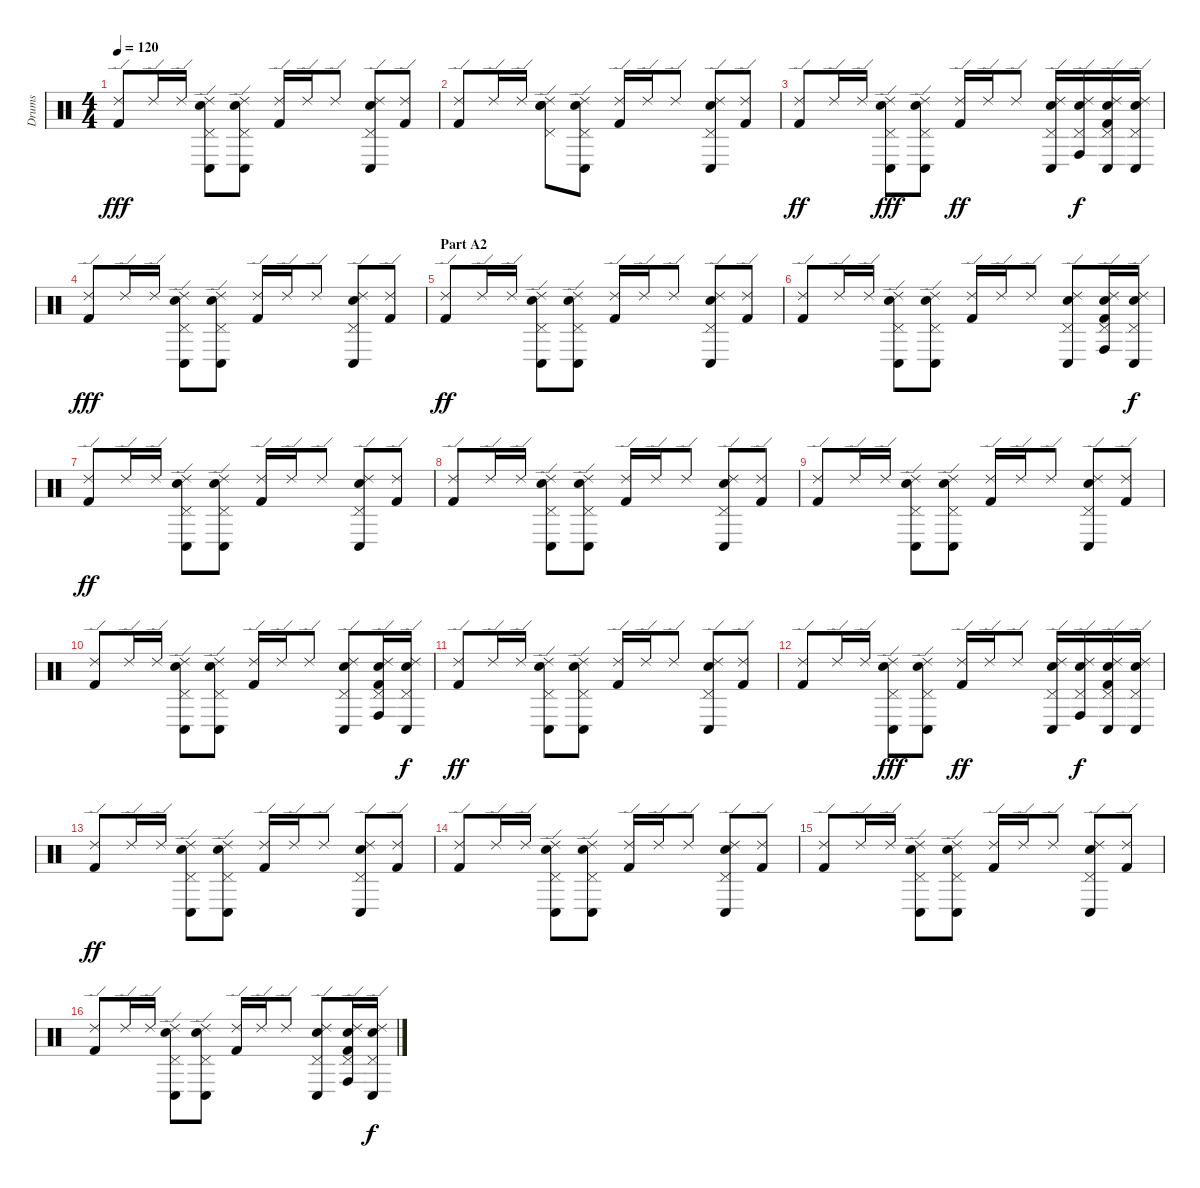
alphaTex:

\track ("Drums" "Drums") {instrument percussion}
\staff {score}
\articulation defaults
\ts (4 4)
\tempo 120
\clef neutral
\ks c
("Ride (edge) 2" "Kick (hit) 2").8{dy fff} "Ride (edge) 2".16 "Ride (edge) 2".16 ("Ride (edge) 2" "Pedal Hi-Hat (hit)" "Conga low (hit)" "Electric Snare (hit)").8 ("Ride (edge) 2" "Pedal Hi-Hat (hit)" "Conga low (hit)" "Electric Snare (hit)").8 ("Ride (edge) 2" "Kick (hit) 2").16 "Ride (edge) 2".16 "Ride (edge) 2".8 ("Ride (edge) 2" "Pedal Hi-Hat (hit)" "Conga low (hit)" "Electric Snare (hit)").8 ("Ride (edge) 2" "Kick (hit) 2").8 |
("Ride (edge) 2" "Kick (hit) 2").8 "Ride (edge) 2".16 "Ride (edge) 2".16 ("Ride (edge) 2" "Pedal Hi-Hat (hit)" "Snare (hit)" "Electric Snare (hit)").8 ("Ride (edge) 2" "Pedal Hi-Hat (hit)" "Conga low (hit)" "Electric Snare (hit)").8 ("Ride (edge) 2" "Kick (hit) 2").16 "Ride (edge) 2".16 "Ride (edge) 2".8 ("Ride (edge) 2" "Pedal Hi-Hat (hit)" "Conga low (hit)" "Electric Snare (hit)").8 ("Ride (edge) 2" "Kick (hit) 2").8 |
("Ride (edge) 2" "Kick (hit) 2").8{dy ff} "Ride (edge) 2".16 "Ride (edge) 2".16 ("Ride (edge) 2" "Pedal Hi-Hat (hit)" "Conga low (hit)" "Electric Snare (hit)").8{dy fff} ("Ride (edge) 2" "Pedal Hi-Hat (hit)" "Conga low (hit)" "Electric Snare (hit)").8 ("Ride (edge) 2" "Kick (hit) 2").16{dy ff} "Ride (edge) 2".16 "Ride (edge) 2".8 ("Ride (edge) 2" "Pedal Hi-Hat (hit)" "Conga low (hit)" "Electric Snare (hit)").16 ("Ride (edge) 2" "Pedal Hi-Hat (hit)" "Conga high (hit)" "Electric Snare (hit)").16{dy f} ("Ride (edge) 2" "Pedal Hi-Hat (hit)" "Conga low (hit)" "Electric Snare (hit)" "Kick (hit) 2").16 ("Ride (edge) 2" "Pedal Hi-Hat (hit)" "Conga low (hit)" "Electric Snare (hit)").16 |
("Ride (edge) 2" "Kick (hit) 2").8{dy fff} "Ride (edge) 2".16 "Ride (edge) 2".16 ("Ride (edge) 2" "Pedal Hi-Hat (hit)" "Conga low (hit)" "Electric Snare (hit)").8 ("Ride (edge) 2" "Pedal Hi-Hat (hit)" "Conga low (hit)" "Electric Snare (hit)").8 ("Ride (edge) 2" "Kick (hit) 2").16 "Ride (edge) 2".16 "Ride (edge) 2".8 ("Ride (edge) 2" "Pedal Hi-Hat (hit)" "Conga low (hit)" "Electric Snare (hit)").8 ("Ride (edge) 2" "Kick (hit) 2").8 |
\section ("" "Part A2")
("Ride (edge) 2" "Kick (hit) 2").8{dy ff} "Ride (edge) 2".16 "Ride (edge) 2".16 ("Ride (edge) 2" "Pedal Hi-Hat (hit)" "Conga low (hit)" "Electric Snare (hit)").8 ("Ride (edge) 2" "Pedal Hi-Hat (hit)" "Conga low (hit)" "Electric Snare (hit)").8 ("Ride (edge) 2" "Kick (hit) 2").16 "Ride (edge) 2".16 "Ride (edge) 2".8 ("Ride (edge) 2" "Pedal Hi-Hat (hit)" "Conga low (hit)" "Electric Snare (hit)").8 ("Ride (edge) 2" "Kick (hit) 2").8 |
("Ride (edge) 2" "Kick (hit) 2").8 "Ride (edge) 2".16 "Ride (edge) 2".16 ("Ride (edge) 2" "Pedal Hi-Hat (hit)" "Conga low (hit)" "Electric Snare (hit)").8 ("Ride (edge) 2" "Pedal Hi-Hat (hit)" "Conga low (hit)" "Electric Snare (hit)").8 ("Ride (edge) 2" "Kick (hit) 2").16 "Ride (edge) 2".16 "Ride (edge) 2".8 ("Ride (edge) 2" "Pedal Hi-Hat (hit)" "Conga low (hit)" "Electric Snare (hit)").8 ("Ride (edge) 2" "Pedal Hi-Hat (hit)" "Conga high (hit)" "Electric Snare (hit)" "Kick (hit) 2").16 ("Ride (edge) 2" "Pedal Hi-Hat (hit)" "Conga low (hit)" "Electric Snare (hit)").16{dy f} |
("Ride (edge) 2" "Kick (hit) 2").8{dy ff} "Ride (edge) 2".16 "Ride (edge) 2".16 ("Ride (edge) 2" "Pedal Hi-Hat (hit)" "Conga low (hit)" "Electric Snare (hit)").8 ("Ride (edge) 2" "Pedal Hi-Hat (hit)" "Conga low (hit)" "Electric Snare (hit)").8 ("Ride (edge) 2" "Kick (hit) 2").16 "Ride (edge) 2".16 "Ride (edge) 2".8 ("Ride (edge) 2" "Pedal Hi-Hat (hit)" "Conga low (hit)" "Electric Snare (hit)").8 ("Ride (edge) 2" "Kick (hit) 2").8 |
("Ride (edge) 2" "Kick (hit) 2").8 "Ride (edge) 2".16 "Ride (edge) 2".16 ("Ride (edge) 2" "Pedal Hi-Hat (hit)" "Conga low (hit)" "Electric Snare (hit)").8 ("Ride (edge) 2" "Pedal Hi-Hat (hit)" "Conga low (hit)" "Electric Snare (hit)").8 ("Ride (edge) 2" "Kick (hit) 2").16 "Ride (edge) 2".16 "Ride (edge) 2".8 ("Ride (edge) 2" "Pedal Hi-Hat (hit)" "Conga low (hit)" "Electric Snare (hit)").8 ("Ride (edge) 2" "Kick (hit) 2").8 |
("Ride (edge) 2" "Kick (hit) 2").8 "Ride (edge) 2".16 "Ride (edge) 2".16 ("Ride (edge) 2" "Pedal Hi-Hat (hit)" "Conga low (hit)" "Electric Snare (hit)").8 ("Ride (edge) 2" "Pedal Hi-Hat (hit)" "Conga low (hit)" "Electric Snare (hit)").8 ("Ride (edge) 2" "Kick (hit) 2").16 "Ride (edge) 2".16 "Ride (edge) 2".8 ("Ride (edge) 2" "Pedal Hi-Hat (hit)" "Conga low (hit)" "Electric Snare (hit)").8 ("Ride (edge) 2" "Kick (hit) 2").8 |
("Ride (edge) 2" "Kick (hit) 2").8 "Ride (edge) 2".16 "Ride (edge) 2".16 ("Ride (edge) 2" "Pedal Hi-Hat (hit)" "Conga low (hit)" "Electric Snare (hit)").8 ("Ride (edge) 2" "Pedal Hi-Hat (hit)" "Conga low (hit)" "Electric Snare (hit)").8 ("Ride (edge) 2" "Kick (hit) 2").16 "Ride (edge) 2".16 "Ride (edge) 2".8 ("Ride (edge) 2" "Pedal Hi-Hat (hit)" "Conga low (hit)" "Electric Snare (hit)").8 ("Ride (edge) 2" "Pedal Hi-Hat (hit)" "Conga high (hit)" "Electric Snare (hit)" "Kick (hit) 2").16 ("Ride (edge) 2" "Pedal Hi-Hat (hit)" "Conga low (hit)" "Electric Snare (hit)").16{dy f} |
("Ride (edge) 2" "Kick (hit) 2").8{dy ff} "Ride (edge) 2".16 "Ride (edge) 2".16 ("Ride (edge) 2" "Pedal Hi-Hat (hit)" "Conga low (hit)" "Electric Snare (hit)").8 ("Ride (edge) 2" "Pedal Hi-Hat (hit)" "Conga low (hit)" "Electric Snare (hit)").8 ("Ride (edge) 2" "Kick (hit) 2").16 "Ride (edge) 2".16 "Ride (edge) 2".8 ("Ride (edge) 2" "Pedal Hi-Hat (hit)" "Conga low (hit)" "Electric Snare (hit)").8 ("Ride (edge) 2" "Kick (hit) 2").8 |
("Ride (edge) 2" "Kick (hit) 2").8 "Ride (edge) 2".16 "Ride (edge) 2".16 ("Ride (edge) 2" "Pedal Hi-Hat (hit)" "Conga low (hit)" "Electric Snare (hit)").8{dy fff} ("Ride (edge) 2" "Pedal Hi-Hat (hit)" "Conga low (hit)" "Electric Snare (hit)").8 ("Ride (edge) 2" "Kick (hit) 2").16{dy ff} "Ride (edge) 2".16 "Ride (edge) 2".8 ("Ride (edge) 2" "Pedal Hi-Hat (hit)" "Conga low (hit)" "Electric Snare (hit)").16 ("Ride (edge) 2" "Pedal Hi-Hat (hit)" "Conga high (hit)" "Electric Snare (hit)").16{dy f} ("Ride (edge) 2" "Pedal Hi-Hat (hit)" "Conga low (hit)" "Electric Snare (hit)" "Kick (hit) 2").16 ("Ride (edge) 2" "Pedal Hi-Hat (hit)" "Conga low (hit)" "Electric Snare (hit)").16 |
("Ride (edge) 2" "Kick (hit) 2").8{dy ff} "Ride (edge) 2".16 "Ride (edge) 2".16 ("Ride (edge) 2" "Pedal Hi-Hat (hit)" "Conga low (hit)" "Electric Snare (hit)").8 ("Ride (edge) 2" "Pedal Hi-Hat (hit)" "Conga low (hit)" "Electric Snare (hit)").8 ("Ride (edge) 2" "Kick (hit) 2").16 "Ride (edge) 2".16 "Ride (edge) 2".8 ("Ride (edge) 2" "Pedal Hi-Hat (hit)" "Conga low (hit)" "Electric Snare (hit)").8 ("Ride (edge) 2" "Kick (hit) 2").8 |
("Ride (edge) 2" "Kick (hit) 2").8 "Ride (edge) 2".16 "Ride (edge) 2".16 ("Ride (edge) 2" "Pedal Hi-Hat (hit)" "Conga low (hit)" "Electric Snare (hit)").8 ("Ride (edge) 2" "Pedal Hi-Hat (hit)" "Conga low (hit)" "Electric Snare (hit)").8 ("Ride (edge) 2" "Kick (hit) 2").16 "Ride (edge) 2".16 "Ride (edge) 2".8 ("Ride (edge) 2" "Pedal Hi-Hat (hit)" "Conga low (hit)" "Electric Snare (hit)").8 ("Ride (edge) 2" "Kick (hit) 2").8 |
("Ride (edge) 2" "Kick (hit) 2").8 "Ride (edge) 2".16 "Ride (edge) 2".16 ("Ride (edge) 2" "Pedal Hi-Hat (hit)" "Conga low (hit)" "Electric Snare (hit)").8 ("Ride (edge) 2" "Pedal Hi-Hat (hit)" "Conga low (hit)" "Electric Snare (hit)").8 ("Ride (edge) 2" "Kick (hit) 2").16 "Ride (edge) 2".16 "Ride (edge) 2".8 ("Ride (edge) 2" "Pedal Hi-Hat (hit)" "Conga low (hit)" "Electric Snare (hit)").8 ("Ride (edge) 2" "Kick (hit) 2").8 |
("Ride (edge) 2" "Kick (hit) 2").8 "Ride (edge) 2".16 "Ride (edge) 2".16 ("Ride (edge) 2" "Pedal Hi-Hat (hit)" "Conga low (hit)" "Electric Snare (hit)").8 ("Ride (edge) 2" "Pedal Hi-Hat (hit)" "Conga low (hit)" "Electric Snare (hit)").8 ("Ride (edge) 2" "Kick (hit) 2").16 "Ride (edge) 2".16 "Ride (edge) 2".8 ("Ride (edge) 2" "Pedal Hi-Hat (hit)" "Conga low (hit)" "Electric Snare (hit)").8 ("Ride (edge) 2" "Pedal Hi-Hat (hit)" "Conga high (hit)" "Electric Snare (hit)" "Kick (hit) 2").16 ("Ride (edge) 2" "Pedal Hi-Hat (hit)" "Conga low (hit)" "Electric Snare (hit)").16{dy f}
